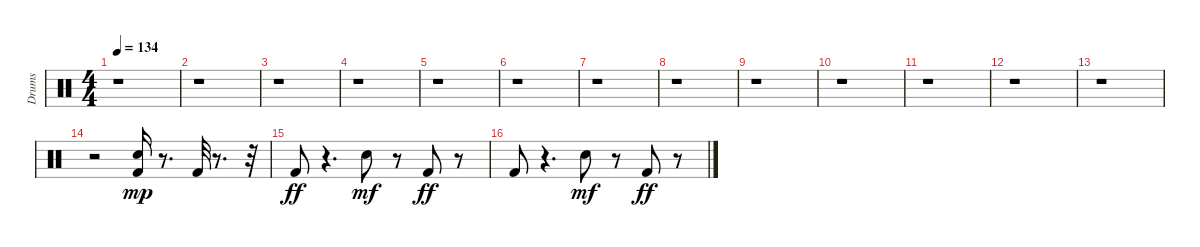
\track ("Drums" "Drums") {instrument percussion}
\staff {score}
\articulation defaults
\ts (4 4)
\tempo 134
\clef neutral
\ks c
r.1{dy f} |
r.1 |
r.1 |
r.1 |
r.1 |
r.1 |
r.1 |
r.1 |
r.1 |
r.1 |
r.1 |
r.1 |
r.1 |
r.2 ("Kick (hit) 2" "Electric Snare (hit)").16{dy mp} r.8{d} "Kick (hit) 2".32 r.8{d} r.32 |
"Kick (hit) 2".8{dy ff} r.4{d} "Electric Snare (hit)".8{dy mf} r.8 "Kick (hit) 2".8{dy ff} r.8 |
"Kick (hit) 2".8 r.4{d} "Electric Snare (hit)".8{dy mf} r.8 "Kick (hit) 2".8{dy ff} r.8
